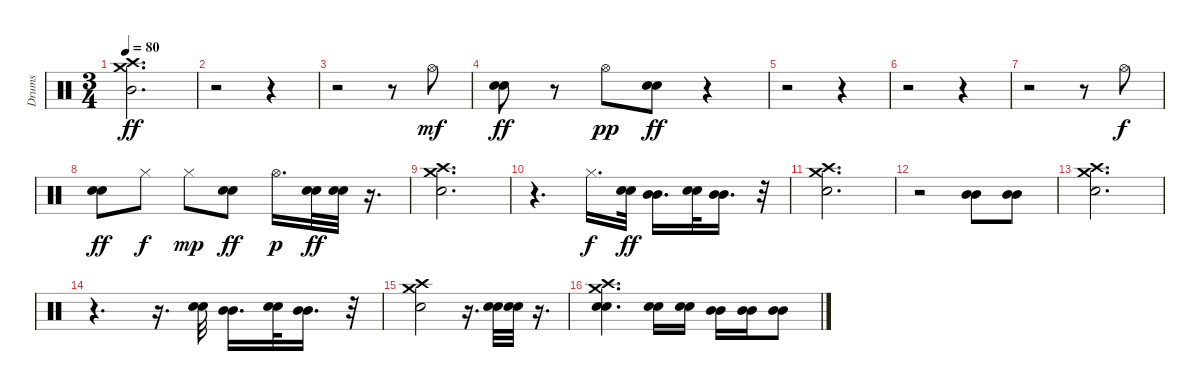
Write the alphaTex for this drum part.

\track ("Drums" "Drums") {instrument percussion}
\staff {score}
\articulation defaults
\ts (3 4)
\tempo 80
\clef neutral
\ks c
("Crash high (hit)" "Crash medium (hit)" "Mid Tom (hit)").2{d dy ff} |
r.2 r.4 |
r.2 r.8 "Hi-Hat (open)".8{dy mf} |
("Electric Snare (hit)" "Electric Snare (hit)").8{bd 120 dy ff} r.8 "Hi-Hat (open)".8{dy pp} ("Electric Snare (hit)" "Electric Snare (hit)").8{bd 120 dy ff} r.4 |
r.2 r.4 |
r.2 r.4 |
r.2 r.8 "Hi-Hat (open)".8{dy f} |
("Electric Snare (hit)" "Electric Snare (hit)").8{bd 120 dy ff} "Hi-Hat (closed)".8{dy f} "Hi-Hat (closed)".8{dy mp} ("Electric Snare (hit)" "Electric Snare (hit)").8{bd 120 dy ff} "Hi-Hat (open)".16{d dy p} ("Electric Snare (hit)" "Electric Snare (hit)").32{dy ff} ("Snare (hit) 2" "Electric Snare (hit)").32 r.16{d} |
("Crash high (hit)" "Crash medium (hit)" "Snare (hit) 2").2{d} |
r.4{d} "Hi-Hat (closed)".16{d dy f} ("Snare (hit) 2" "Electric Snare (hit)").32{dy ff} ("Mid Tom (hit)" "Mid Tom (hit)").16{d} ("Snare (hit) 2" "Electric Snare (hit)").32 ("Mid Tom (hit)" "Mid Tom (hit)").16{d} r.32 |
("Crash high (hit)" "Crash medium (hit)" "Snare (hit) 2").2{d} |
r.2 ("Mid Tom (hit)" "Mid Tom (hit)").8 ("Mid Tom (hit)" "Mid Tom (hit)").8 |
("Crash high (hit)" "Crash medium (hit)" "Snare (hit) 2").2{d} |
r.4{d} r.16{d} ("Snare (hit) 2" "Electric Snare (hit)").32 ("Mid Tom (hit)" "Mid Tom (hit)").16{d} ("Snare (hit) 2" "Electric Snare (hit)").32 ("Mid Tom (hit)" "Mid Tom (hit)").16{d} r.32 |
("Crash high (hit)" "Crash medium (hit)" "Electric Snare (hit)").2 r.16{d} ("Electric Snare (hit)" "Electric Snare (hit)").32 ("Snare (hit) 2" "Electric Snare (hit)").32 r.16{d} |
("Crash high (hit)" "Crash medium (hit)" "Snare (hit) 2" "Snare (hit) 2").4{d} ("Snare (hit) 2" "Snare (hit) 2").16{bd 120} ("Snare (hit) 2" "Snare (hit) 2").16 ("Mid Tom (hit)" "Mid Tom (hit)").16 ("Mid Tom (hit)" "Mid Tom (hit)").16 ("Mid Tom (hit)" "Mid Tom (hit)").8
